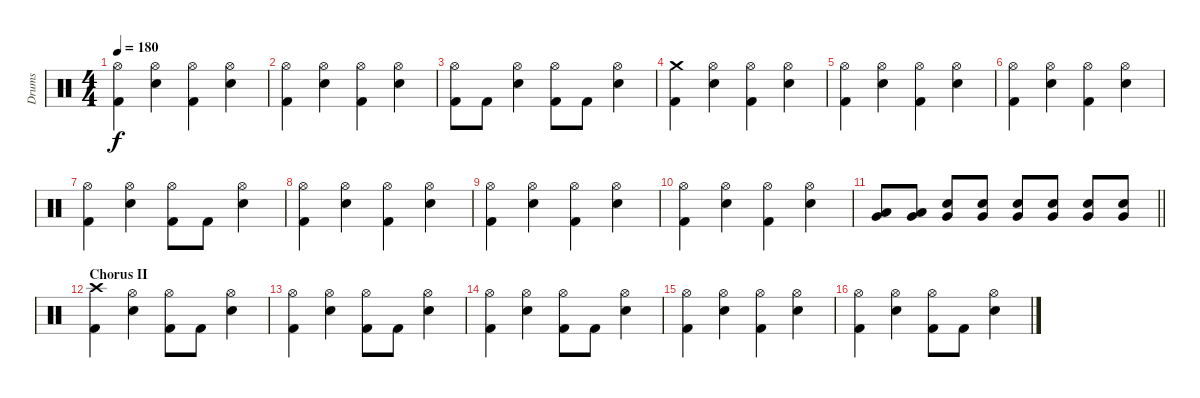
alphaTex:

\track ("Drums" "Drums") {instrument percussion}
\staff {score}
\articulation defaults
\ts (4 4)
\tempo 180
\clef neutral
\ks c
("Hi-Hat (open)" "Kick (hit) 2").4{dy f} ("Hi-Hat (open)" "Electric Snare (hit)").4 ("Hi-Hat (open)" "Kick (hit) 2").4 ("Hi-Hat (open)" "Electric Snare (hit)").4 |
("Hi-Hat (open)" "Kick (hit) 2").4 ("Hi-Hat (open)" "Electric Snare (hit)").4 ("Hi-Hat (open)" "Kick (hit) 2").4 ("Hi-Hat (open)" "Electric Snare (hit)").4 |
("Hi-Hat (open)" "Kick (hit) 2").8 "Kick (hit) 2".8 ("Hi-Hat (open)" "Electric Snare (hit)").4 ("Hi-Hat (open)" "Kick (hit) 2").8 "Kick (hit) 2".8 ("Hi-Hat (open)" "Electric Snare (hit)").4 |
("Crash medium (hit)" "Kick (hit) 2").4 ("Hi-Hat (open)" "Electric Snare (hit)").4 ("Hi-Hat (open)" "Kick (hit) 2").4 ("Hi-Hat (open)" "Electric Snare (hit)").4 |
("Hi-Hat (open)" "Kick (hit) 2").4 ("Hi-Hat (open)" "Electric Snare (hit)").4 ("Hi-Hat (open)" "Kick (hit) 2").4 ("Hi-Hat (open)" "Electric Snare (hit)").4 |
("Hi-Hat (open)" "Kick (hit) 2").4 ("Hi-Hat (open)" "Electric Snare (hit)").4 ("Hi-Hat (open)" "Kick (hit) 2").4 ("Hi-Hat (open)" "Electric Snare (hit)").4 |
("Hi-Hat (open)" "Kick (hit) 2").4 ("Hi-Hat (open)" "Electric Snare (hit)").4 ("Hi-Hat (open)" "Kick (hit) 2").8 "Kick (hit) 2".8 ("Hi-Hat (open)" "Electric Snare (hit)").4 |
("Hi-Hat (open)" "Kick (hit) 2").4 ("Hi-Hat (open)" "Electric Snare (hit)").4 ("Hi-Hat (open)" "Kick (hit) 2").4 ("Hi-Hat (open)" "Electric Snare (hit)").4 |
("Hi-Hat (open)" "Kick (hit) 2").4 ("Hi-Hat (open)" "Electric Snare (hit)").4 ("Hi-Hat (open)" "Kick (hit) 2").4 ("Hi-Hat (open)" "Electric Snare (hit)").4 |
("Hi-Hat (open)" "Kick (hit) 2").4 ("Hi-Hat (open)" "Electric Snare (hit)").4 ("Hi-Hat (open)" "Kick (hit) 2").4 ("Hi-Hat (open)" "Electric Snare (hit)").4 |
\barLineRight lightlight
("Low Tom (hit)" "Very Low Tom (hit)").8 ("Low Tom (hit)" "Very Low Tom (hit)").8 ("Electric Snare (hit)" "Very Low Tom (hit)").8 ("Electric Snare (hit)" "Very Low Tom (hit)").8 ("Electric Snare (hit)" "Very Low Tom (hit)").8 ("Electric Snare (hit)" "Very Low Tom (hit)").8 ("Electric Snare (hit)" "Very Low Tom (hit)").8 ("Electric Snare (hit)" "Very Low Tom (hit)").8 |
\section ("" "Chorus II")
("Crash high (hit)" "Kick (hit) 2").4 ("Hi-Hat (open)" "Electric Snare (hit)").4 ("Hi-Hat (open)" "Kick (hit) 2").8 "Kick (hit) 2".8 ("Hi-Hat (open)" "Electric Snare (hit)").4 |
("Hi-Hat (open)" "Kick (hit) 2").4 ("Hi-Hat (open)" "Electric Snare (hit)").4 ("Hi-Hat (open)" "Kick (hit) 2").8 "Kick (hit) 2".8 ("Hi-Hat (open)" "Electric Snare (hit)").4 |
("Hi-Hat (open)" "Kick (hit) 2").4 ("Hi-Hat (open)" "Electric Snare (hit)").4 ("Hi-Hat (open)" "Kick (hit) 2").8 "Kick (hit) 2".8 ("Hi-Hat (open)" "Electric Snare (hit)").4 |
("Hi-Hat (open)" "Kick (hit) 2").4 ("Hi-Hat (open)" "Electric Snare (hit)").4 ("Hi-Hat (open)" "Kick (hit) 2").4 ("Hi-Hat (open)" "Electric Snare (hit)").4 |
("Hi-Hat (open)" "Kick (hit) 2").4 ("Hi-Hat (open)" "Electric Snare (hit)").4 ("Hi-Hat (open)" "Kick (hit) 2").8 "Kick (hit) 2".8 ("Hi-Hat (open)" "Electric Snare (hit)").4
